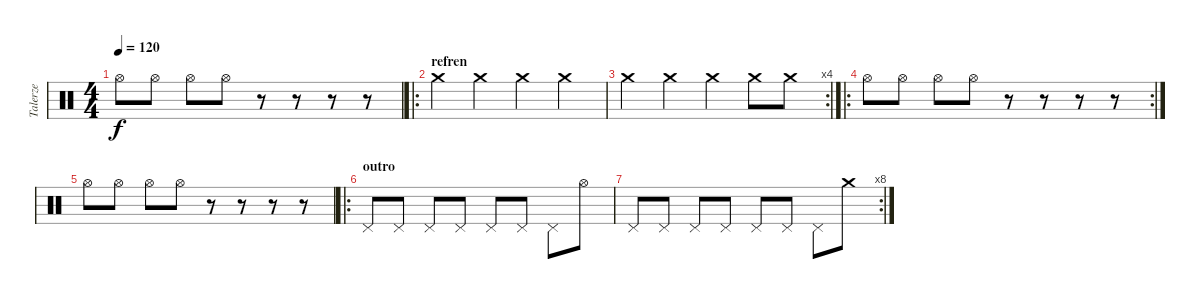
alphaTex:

\track ("Talerze" "Talerze") {instrument percussion}
\staff {score}
\articulation defaults
\ts (4 4)
\tempo 120
\clef neutral
\ks c "Hi-Hat (open)".8{dy f} "Hi-Hat (open)".8 "Hi-Hat (open)".8 "Hi-Hat (open)".8
r.8 r.8 r.8 r.8 |
\ro
\section ("" "refren")
"Crash medium (hit)".4 "Crash medium (hit)".4 "Crash medium (hit)".4 "Crash medium (hit)".4 |
\rc 4 "Crash medium (hit)".4 "Crash medium (hit)".4 "Crash medium (hit)".4 "Crash medium (hit)".8 "Crash medium (hit)".8
|
\ro
\rc 2 "Hi-Hat (open)".8 "Hi-Hat (open)".8 "Hi-Hat (open)".8 "Hi-Hat (open)".8
r.8 r.8 r.8 r.8 |
"Hi-Hat (open)".8 "Hi-Hat (open)".8 "Hi-Hat (open)".8 "Hi-Hat (open)".8 r.8 r.8 r.8 r.8 |
\ro
\section ("" "outro")
"Pedal Hi-Hat (hit)".8 "Pedal Hi-Hat (hit)".8 "Pedal Hi-Hat (hit)".8 "Pedal Hi-Hat (hit)".8 "Pedal Hi-Hat (hit)".8 "Pedal Hi-Hat (hit)".8 "Pedal Hi-Hat (hit)".8 "Hi-Hat (open)".8 |
\rc 8 "Pedal Hi-Hat (hit)".8 "Pedal Hi-Hat (hit)".8 "Pedal Hi-Hat (hit)".8 "Pedal Hi-Hat (hit)".8 "Pedal Hi-Hat (hit)".8 "Pedal Hi-Hat (hit)".8 "Pedal Hi-Hat (hit)".8 "Crash medium (hit)".8
